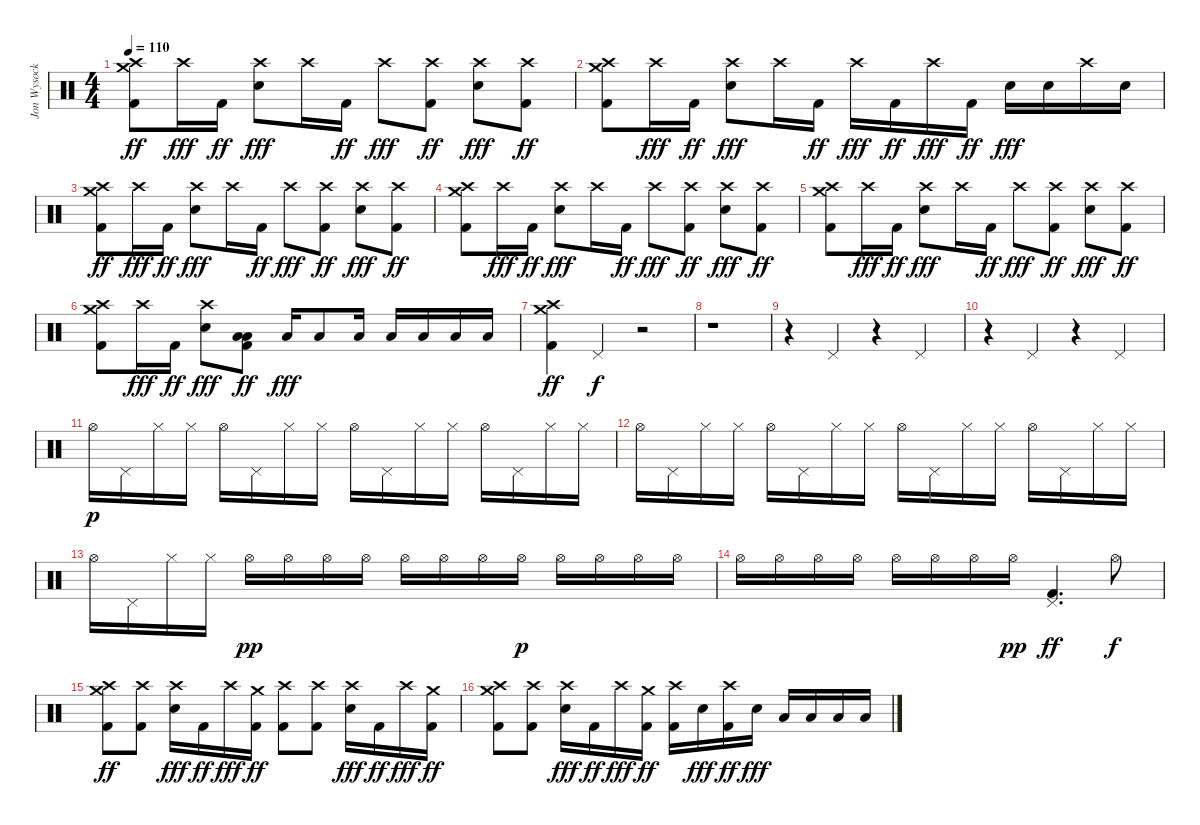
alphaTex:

\track ("Jon Wysocki" "Jon Wysock") {instrument percussion}
\staff {score}
\articulation defaults
\ts (4 4)
\tempo 110
\clef neutral
\ks c
("Crash medium (hit)" "Crash high (hit)" "Kick (hit) 2").8{dy ff} "Crash high (hit)".16{dy fff} "Kick (hit) 2".16{dy ff} ("Crash high (hit)" "Electric Snare (hit)").8{dy fff} "Crash high (hit)".16 "Kick (hit) 2".16{dy ff} "Crash high (hit)".8{dy fff} ("Crash high (hit)" "Kick (hit) 2").8{dy ff} ("Crash high (hit)" "Electric Snare (hit)").8{dy fff} ("Crash high (hit)" "Kick (hit) 2").8{dy ff} |
("Crash medium (hit)" "Crash high (hit)" "Kick (hit) 2").8 "Crash high (hit)".16{dy fff} "Kick (hit) 2".16{dy ff} ("Crash high (hit)" "Electric Snare (hit)").8{dy fff} "Crash high (hit)".16 "Kick (hit) 2".16{dy ff} "Crash high (hit)".16{dy fff} "Kick (hit) 2".16{dy ff} "Crash high (hit)".16{dy fff} "Kick (hit) 2".16{dy ff} "Electric Snare (hit)".16{dy fff} "Electric Snare (hit)".16 "Crash high (hit)".16 "Electric Snare (hit)".16 |
("Crash medium (hit)" "Crash high (hit)" "Kick (hit) 2").8{dy ff} "Crash high (hit)".16{dy fff} "Kick (hit) 2".16{dy ff} ("Crash high (hit)" "Electric Snare (hit)").8{dy fff} "Crash high (hit)".16 "Kick (hit) 2".16{dy ff} "Crash high (hit)".8{dy fff} ("Crash high (hit)" "Kick (hit) 2").8{dy ff} ("Crash high (hit)" "Electric Snare (hit)").8{dy fff} ("Crash high (hit)" "Kick (hit) 2").8{dy ff} |
("Crash medium (hit)" "Crash high (hit)" "Kick (hit) 2").8 "Crash high (hit)".16{dy fff} "Kick (hit) 2".16{dy ff} ("Crash high (hit)" "Electric Snare (hit)").8{dy fff} "Crash high (hit)".16 "Kick (hit) 2".16{dy ff} "Crash high (hit)".8{dy fff} ("Crash high (hit)" "Kick (hit) 2").8{dy ff} ("Crash high (hit)" "Electric Snare (hit)").8{dy fff} ("Crash high (hit)" "Kick (hit) 2").8{dy ff} |
("Crash medium (hit)" "Crash high (hit)" "Kick (hit) 2").8 "Crash high (hit)".16{dy fff} "Kick (hit) 2".16{dy ff} ("Crash high (hit)" "Electric Snare (hit)").8{dy fff} "Crash high (hit)".16 "Kick (hit) 2".16{dy ff} "Crash high (hit)".8{dy fff} ("Crash high (hit)" "Kick (hit) 2").8{dy ff} ("Crash high (hit)" "Electric Snare (hit)").8{dy fff} ("Crash high (hit)" "Kick (hit) 2").8{dy ff} |
("Crash medium (hit)" "Crash high (hit)" "Kick (hit) 2").8 "Crash high (hit)".16{dy fff} "Kick (hit) 2".16{dy ff} ("Crash high (hit)" "Electric Snare (hit)").8{dy fff} ("Low Tom (hit)" "Low Floor Tom (hit)" "Kick (hit) 2").8{dy ff} "Low Floor Tom (hit)".16{dy fff} "Low Tom (hit)".8 "Low Tom (hit)".16 "Low Floor Tom (hit)".16 "Low Floor Tom (hit)".16 "Low Floor Tom (hit)".16 "Low Floor Tom (hit)".16 |
("Crash medium (hit)" "Crash high (hit)" "Kick (hit) 2").4{dy ff} "Pedal Hi-Hat (hit)".4{dy f} r.2 |
r.1 |
r.4 "Pedal Hi-Hat (hit)".4 r.4 "Pedal Hi-Hat (hit)".4 |
r.4 "Pedal Hi-Hat (hit)".4 r.4 "Pedal Hi-Hat (hit)".4 |
"Hi-Hat (open)".16{dy p} "Pedal Hi-Hat (hit)".16 "Hi-Hat (closed)".16 "Hi-Hat (closed)".16 "Hi-Hat (open)".16 "Pedal Hi-Hat (hit)".16 "Hi-Hat (closed)".16 "Hi-Hat (closed)".16 "Hi-Hat (open)".16 "Pedal Hi-Hat (hit)".16 "Hi-Hat (closed)".16 "Hi-Hat (closed)".16 "Hi-Hat (open)".16 "Pedal Hi-Hat (hit)".16 "Hi-Hat (closed)".16 "Hi-Hat (closed)".16 |
"Hi-Hat (open)".16 "Pedal Hi-Hat (hit)".16 "Hi-Hat (closed)".16 "Hi-Hat (closed)".16 "Hi-Hat (open)".16 "Pedal Hi-Hat (hit)".16 "Hi-Hat (closed)".16 "Hi-Hat (closed)".16 "Hi-Hat (open)".16 "Pedal Hi-Hat (hit)".16 "Hi-Hat (closed)".16 "Hi-Hat (closed)".16 "Hi-Hat (open)".16 "Pedal Hi-Hat (hit)".16 "Hi-Hat (closed)".16 "Hi-Hat (closed)".16 |
"Hi-Hat (open)".16 "Pedal Hi-Hat (hit)".16 "Hi-Hat (closed)".16 "Hi-Hat (closed)".16 "Hi-Hat (open)".16{dy pp} "Hi-Hat (open)".16 "Hi-Hat (open)".16 "Hi-Hat (open)".16 "Hi-Hat (open)".16 "Hi-Hat (open)".16 "Hi-Hat (open)".16 "Hi-Hat (open)".16{dy p} "Hi-Hat (open)".16 "Hi-Hat (open)".16 "Hi-Hat (open)".16 "Hi-Hat (open)".16 |
"Hi-Hat (open)".16 "Hi-Hat (open)".16 "Hi-Hat (open)".16 "Hi-Hat (open)".16 "Hi-Hat (open)".16 "Hi-Hat (open)".16 "Hi-Hat (open)".16 "Hi-Hat (open)".16{dy pp} ("Pedal Hi-Hat (hit)" "Kick (hit) 2").4{d dy ff} "Hi-Hat (open)".8{dy f} |
("Crash medium (hit)" "Crash high (hit)" "Kick (hit) 2").8{dy ff} ("Crash high (hit)" "Kick (hit) 2").8 ("Crash high (hit)" "Electric Snare (hit)").16{dy fff} "Kick (hit) 2".16{dy ff} "Crash high (hit)".16{dy fff} ("Crash medium (hit)" "Kick (hit) 2").16{dy ff} ("Crash high (hit)" "Kick (hit) 2").8 ("Crash high (hit)" "Kick (hit) 2").8 ("Crash high (hit)" "Electric Snare (hit)").16{dy fff} "Kick (hit) 2".16{dy ff} "Crash high (hit)".16{dy fff} ("Crash medium (hit)" "Kick (hit) 2").16{dy ff} |
("Crash medium (hit)" "Crash high (hit)" "Kick (hit) 2").8 ("Crash high (hit)" "Kick (hit) 2").8 ("Crash high (hit)" "Electric Snare (hit)").16{dy fff} "Kick (hit) 2".16{dy ff} "Crash high (hit)".16{dy fff} ("Crash medium (hit)" "Kick (hit) 2").16{dy ff} ("Crash high (hit)" "Kick (hit) 2").16 "Electric Snare (hit)".16{dy fff} ("Crash high (hit)" "Kick (hit) 2").16{dy ff} "Electric Snare (hit)".16{dy fff} "Low Floor Tom (hit)".16 "Low Floor Tom (hit)".16 "Low Floor Tom (hit)".16 "Low Floor Tom (hit)".16
